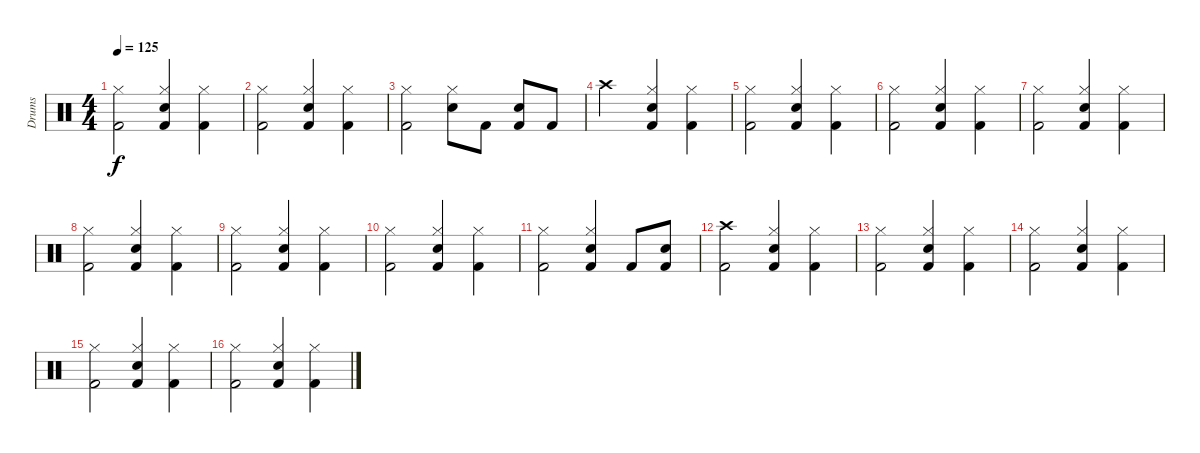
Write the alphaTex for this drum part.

\track ("Drums" "Drums") {instrument percussion}
\staff {score}
\articulation defaults
\ts (4 4)
\tempo 125
\clef neutral
\ks c
("Kick (hit) 2" "Hi-Hat (closed)").2{dy f} ("Hi-Hat (closed)" "Snare (hit) 2" "Kick (hit) 2").4 ("Hi-Hat (closed)" "Kick (hit) 2").4 |
("Kick (hit) 2" "Hi-Hat (closed)").2 ("Hi-Hat (closed)" "Snare (hit) 2" "Kick (hit) 2").4 ("Hi-Hat (closed)" "Kick (hit) 2").4 |
("Kick (hit) 2" "Hi-Hat (closed)").2 ("Hi-Hat (closed)" "Snare (hit) 2").8 "Kick (hit) 2".8 ("Snare (hit) 2" "Kick (hit) 2").8 "Kick (hit) 2".8 |
"Crash high (hit)".2 ("Hi-Hat (closed)" "Snare (hit) 2" "Kick (hit) 2").4 ("Hi-Hat (closed)" "Kick (hit) 2").4 |
("Kick (hit) 2" "Hi-Hat (closed)").2 ("Hi-Hat (closed)" "Snare (hit) 2" "Kick (hit) 2").4 ("Hi-Hat (closed)" "Kick (hit) 2").4 |
("Kick (hit) 2" "Hi-Hat (closed)").2 ("Hi-Hat (closed)" "Snare (hit) 2" "Kick (hit) 2").4 ("Hi-Hat (closed)" "Kick (hit) 2").4 |
("Kick (hit) 2" "Hi-Hat (closed)").2 ("Hi-Hat (closed)" "Snare (hit) 2" "Kick (hit) 2").4 ("Hi-Hat (closed)" "Kick (hit) 2").4 |
("Kick (hit) 2" "Hi-Hat (closed)").2 ("Hi-Hat (closed)" "Snare (hit) 2" "Kick (hit) 2").4 ("Hi-Hat (closed)" "Kick (hit) 2").4 |
("Kick (hit) 2" "Hi-Hat (closed)").2 ("Hi-Hat (closed)" "Snare (hit) 2" "Kick (hit) 2").4 ("Hi-Hat (closed)" "Kick (hit) 2").4 |
("Kick (hit) 2" "Hi-Hat (closed)").2 ("Hi-Hat (closed)" "Snare (hit) 2" "Kick (hit) 2").4 ("Hi-Hat (closed)" "Kick (hit) 2").4 |
("Kick (hit) 2" "Hi-Hat (closed)").2 ("Hi-Hat (closed)" "Kick (hit) 2" "Snare (hit) 2").4 "Kick (hit) 2".8 ("Snare (hit) 2" "Kick (hit) 2").8 |
("Crash high (hit)" "Kick (hit) 2").2 ("Hi-Hat (closed)" "Snare (hit) 2" "Kick (hit) 2").4 ("Hi-Hat (closed)" "Kick (hit) 2").4 |
("Kick (hit) 2" "Hi-Hat (closed)").2 ("Hi-Hat (closed)" "Snare (hit) 2" "Kick (hit) 2").4 ("Hi-Hat (closed)" "Kick (hit) 2").4 |
("Kick (hit) 2" "Hi-Hat (closed)").2 ("Hi-Hat (closed)" "Snare (hit) 2" "Kick (hit) 2").4 ("Hi-Hat (closed)" "Kick (hit) 2").4 |
("Kick (hit) 2" "Hi-Hat (closed)").2 ("Hi-Hat (closed)" "Snare (hit) 2" "Kick (hit) 2").4 ("Hi-Hat (closed)" "Kick (hit) 2").4 |
("Kick (hit) 2" "Hi-Hat (closed)").2 ("Hi-Hat (closed)" "Snare (hit) 2" "Kick (hit) 2").4 ("Hi-Hat (closed)" "Kick (hit) 2").4
